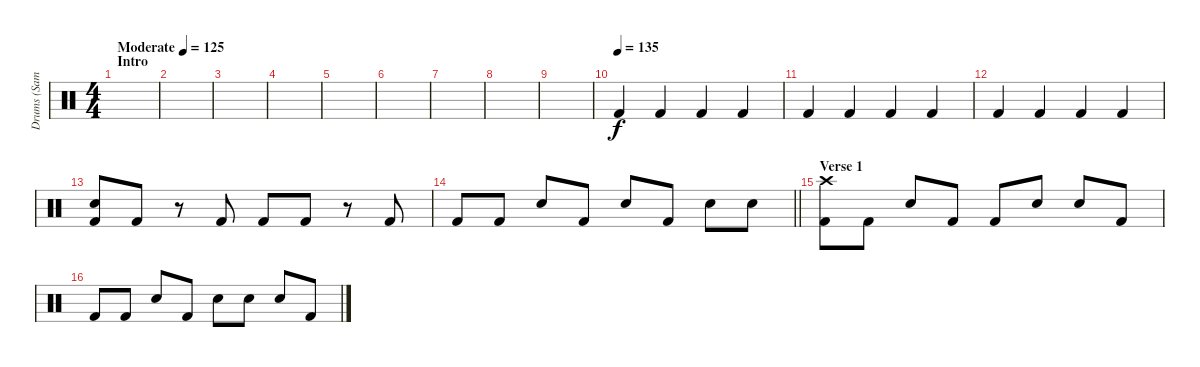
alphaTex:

\track ("Drums (Sam Fogarino)" "Drums (Sam") {instrument percussion}
\staff {score}
\articulation defaults
\ts (4 4)
\section ("" "Intro")
\tempo (125 "Moderate")
\clef neutral
\ks c
|
|
|
|
|
|
|
|
|
\tempo (135)
"Kick (hit) 2".4 "Kick (hit) 2".4 "Kick (hit) 2".4 "Kick (hit) 2".4 |
"Kick (hit) 2".4 "Kick (hit) 2".4 "Kick (hit) 2".4 "Kick (hit) 2".4 |
"Kick (hit) 2".4 "Kick (hit) 2".4 "Kick (hit) 2".4 "Kick (hit) 2".4 |
("Snare (hit) 2" "Kick (hit) 2").8 "Kick (hit) 2".8 r.8 "Kick (hit) 2".8 "Kick (hit) 2".8 "Kick (hit) 2".8 r.8 "Kick (hit) 2".8 |
\barLineRight lightlight "Kick (hit) 2".8 "Kick (hit) 2".8 "Snare (hit) 2".8 "Kick (hit) 2".8 "Snare (hit) 2".8 "Kick (hit) 2".8 "Snare (hit) 2".8 "Snare (hit) 2".8
|
\section ("" "Verse 1")
("Crash high (hit)" "Kick (hit) 2").8 "Kick (hit) 2".8 "Snare (hit) 2".8 "Kick (hit) 2".8 "Kick (hit) 2".8 "Snare (hit) 2".8 "Snare (hit) 2".8 "Kick (hit) 2".8 |
"Kick (hit) 2".8 "Kick (hit) 2".8 "Snare (hit) 2".8 "Kick (hit) 2".8 "Snare (hit) 2".8 "Snare (hit) 2".8 "Snare (hit) 2".8 "Kick (hit) 2".8
